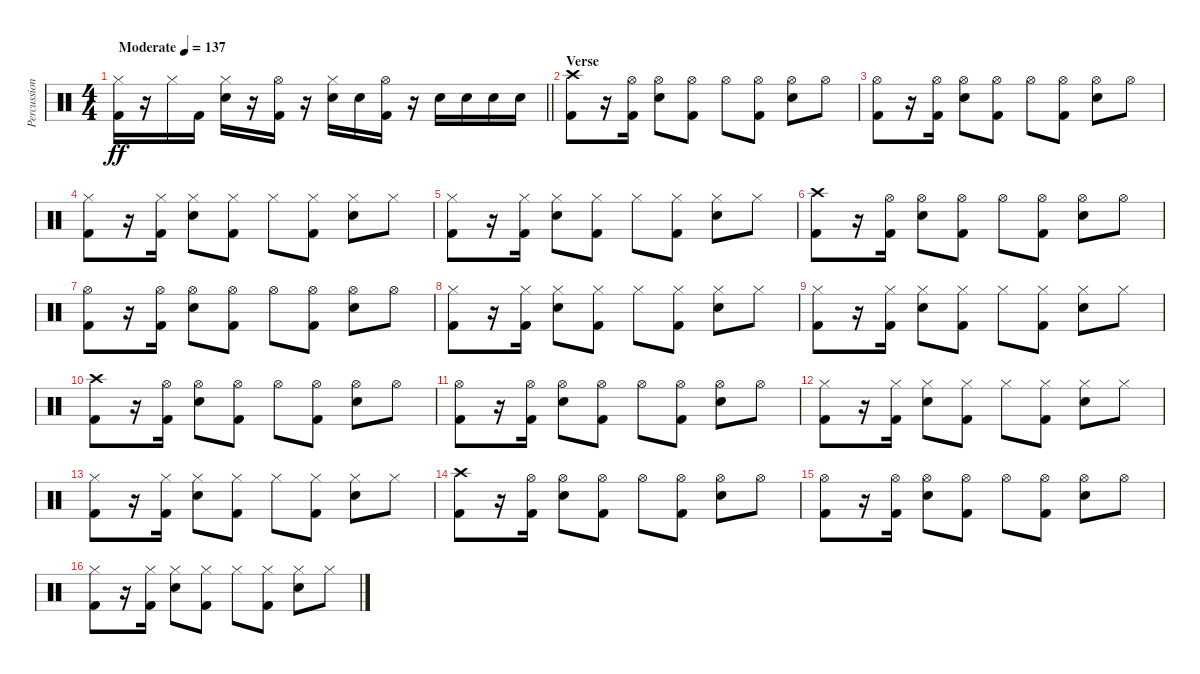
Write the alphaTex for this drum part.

\track ("Percussion" "Percussion") {instrument percussion}
\staff {score}
\articulation defaults
\ts (4 4)
\tempo (137 "Moderate")
\clef neutral
\barLineRight lightlight
\ks c
("Hi-Hat (closed)" "Kick (hit) 2").16{dy ff} r.16 "Hi-Hat (closed)".16 "Kick (hit) 2".16 ("Hi-Hat (closed)" "Electric Snare (hit)").16 r.16 ("Hi-Hat (open)" "Kick (hit) 2").16 r.16 ("Hi-Hat (closed)" "Electric Snare (hit)").16 "Electric Snare (hit)".16 ("Hi-Hat (open)" "Kick (hit) 2").16 r.16 "Electric Snare (hit)".16 "Electric Snare (hit)".16 "Electric Snare (hit)".16 "Electric Snare (hit)".16 |
\section ("" "Verse")
("Crash high (hit)" "Kick (hit) 2").8 r.16 ("Hi-Hat (open)" "Kick (hit) 2").16 ("Hi-Hat (open)" "Electric Snare (hit)").8 ("Hi-Hat (open)" "Kick (hit) 2").8 "Hi-Hat (open)".8 ("Hi-Hat (open)" "Kick (hit) 2").8 ("Hi-Hat (open)" "Electric Snare (hit)").8 "Hi-Hat (open)".8 |
("Hi-Hat (open)" "Kick (hit) 2").8 r.16 ("Hi-Hat (open)" "Kick (hit) 2").16 ("Hi-Hat (open)" "Electric Snare (hit)").8 ("Hi-Hat (open)" "Kick (hit) 2").8 "Hi-Hat (open)".8 ("Hi-Hat (open)" "Kick (hit) 2").8 ("Hi-Hat (open)" "Electric Snare (hit)").8 "Hi-Hat (open)".8 |
("Hi-Hat (closed)" "Kick (hit) 2").8 r.16 ("Hi-Hat (closed)" "Kick (hit) 2").16 ("Hi-Hat (closed)" "Electric Snare (hit)").8 ("Hi-Hat (closed)" "Kick (hit) 2").8 "Hi-Hat (closed)".8 ("Hi-Hat (closed)" "Kick (hit) 2").8 ("Hi-Hat (closed)" "Electric Snare (hit)").8 "Hi-Hat (closed)".8 |
("Hi-Hat (closed)" "Kick (hit) 2").8 r.16 ("Hi-Hat (closed)" "Kick (hit) 2").16 ("Hi-Hat (closed)" "Electric Snare (hit)").8 ("Hi-Hat (closed)" "Kick (hit) 2").8 "Hi-Hat (closed)".8 ("Hi-Hat (closed)" "Kick (hit) 2").8 ("Hi-Hat (closed)" "Electric Snare (hit)").8 "Hi-Hat (closed)".8 |
("Crash high (hit)" "Kick (hit) 2").8 r.16 ("Hi-Hat (open)" "Kick (hit) 2").16 ("Hi-Hat (open)" "Electric Snare (hit)").8 ("Hi-Hat (open)" "Kick (hit) 2").8 "Hi-Hat (open)".8 ("Hi-Hat (open)" "Kick (hit) 2").8 ("Hi-Hat (open)" "Electric Snare (hit)").8 "Hi-Hat (open)".8 |
("Hi-Hat (open)" "Kick (hit) 2").8 r.16 ("Hi-Hat (open)" "Kick (hit) 2").16 ("Hi-Hat (open)" "Electric Snare (hit)").8 ("Hi-Hat (open)" "Kick (hit) 2").8 "Hi-Hat (open)".8 ("Hi-Hat (open)" "Kick (hit) 2").8 ("Hi-Hat (open)" "Electric Snare (hit)").8 "Hi-Hat (open)".8 |
("Hi-Hat (closed)" "Kick (hit) 2").8 r.16 ("Hi-Hat (closed)" "Kick (hit) 2").16 ("Hi-Hat (closed)" "Electric Snare (hit)").8 ("Hi-Hat (closed)" "Kick (hit) 2").8 "Hi-Hat (closed)".8 ("Hi-Hat (closed)" "Kick (hit) 2").8 ("Hi-Hat (closed)" "Electric Snare (hit)").8 "Hi-Hat (closed)".8 |
("Hi-Hat (closed)" "Kick (hit) 2").8 r.16 ("Hi-Hat (closed)" "Kick (hit) 2").16 ("Hi-Hat (closed)" "Electric Snare (hit)").8 ("Hi-Hat (closed)" "Kick (hit) 2").8 "Hi-Hat (closed)".8 ("Hi-Hat (closed)" "Kick (hit) 2").8 ("Hi-Hat (closed)" "Electric Snare (hit)").8 "Hi-Hat (closed)".8 |
("Crash high (hit)" "Kick (hit) 2").8 r.16 ("Hi-Hat (open)" "Kick (hit) 2").16 ("Hi-Hat (open)" "Electric Snare (hit)").8 ("Hi-Hat (open)" "Kick (hit) 2").8 "Hi-Hat (open)".8 ("Hi-Hat (open)" "Kick (hit) 2").8 ("Hi-Hat (open)" "Electric Snare (hit)").8 "Hi-Hat (open)".8 |
("Hi-Hat (open)" "Kick (hit) 2").8 r.16 ("Hi-Hat (open)" "Kick (hit) 2").16 ("Hi-Hat (open)" "Electric Snare (hit)").8 ("Hi-Hat (open)" "Kick (hit) 2").8 "Hi-Hat (open)".8 ("Hi-Hat (open)" "Kick (hit) 2").8 ("Hi-Hat (open)" "Electric Snare (hit)").8 "Hi-Hat (open)".8 |
("Hi-Hat (closed)" "Kick (hit) 2").8 r.16 ("Hi-Hat (closed)" "Kick (hit) 2").16 ("Hi-Hat (closed)" "Electric Snare (hit)").8 ("Hi-Hat (closed)" "Kick (hit) 2").8 "Hi-Hat (closed)".8 ("Hi-Hat (closed)" "Kick (hit) 2").8 ("Hi-Hat (closed)" "Electric Snare (hit)").8 "Hi-Hat (closed)".8 |
("Hi-Hat (closed)" "Kick (hit) 2").8 r.16 ("Hi-Hat (closed)" "Kick (hit) 2").16 ("Hi-Hat (closed)" "Electric Snare (hit)").8 ("Hi-Hat (closed)" "Kick (hit) 2").8 "Hi-Hat (closed)".8 ("Hi-Hat (closed)" "Kick (hit) 2").8 ("Hi-Hat (closed)" "Electric Snare (hit)").8 "Hi-Hat (closed)".8 |
("Crash high (hit)" "Kick (hit) 2").8 r.16 ("Hi-Hat (open)" "Kick (hit) 2").16 ("Hi-Hat (open)" "Electric Snare (hit)").8 ("Hi-Hat (open)" "Kick (hit) 2").8 "Hi-Hat (open)".8 ("Hi-Hat (open)" "Kick (hit) 2").8 ("Hi-Hat (open)" "Electric Snare (hit)").8 "Hi-Hat (open)".8 |
("Hi-Hat (open)" "Kick (hit) 2").8 r.16 ("Hi-Hat (open)" "Kick (hit) 2").16 ("Hi-Hat (open)" "Electric Snare (hit)").8 ("Hi-Hat (open)" "Kick (hit) 2").8 "Hi-Hat (open)".8 ("Hi-Hat (open)" "Kick (hit) 2").8 ("Hi-Hat (open)" "Electric Snare (hit)").8 "Hi-Hat (open)".8 |
("Hi-Hat (closed)" "Kick (hit) 2").8 r.16 ("Hi-Hat (closed)" "Kick (hit) 2").16 ("Hi-Hat (closed)" "Electric Snare (hit)").8 ("Hi-Hat (closed)" "Kick (hit) 2").8 "Hi-Hat (closed)".8 ("Hi-Hat (closed)" "Kick (hit) 2").8 ("Hi-Hat (closed)" "Electric Snare (hit)").8 "Hi-Hat (closed)".8
